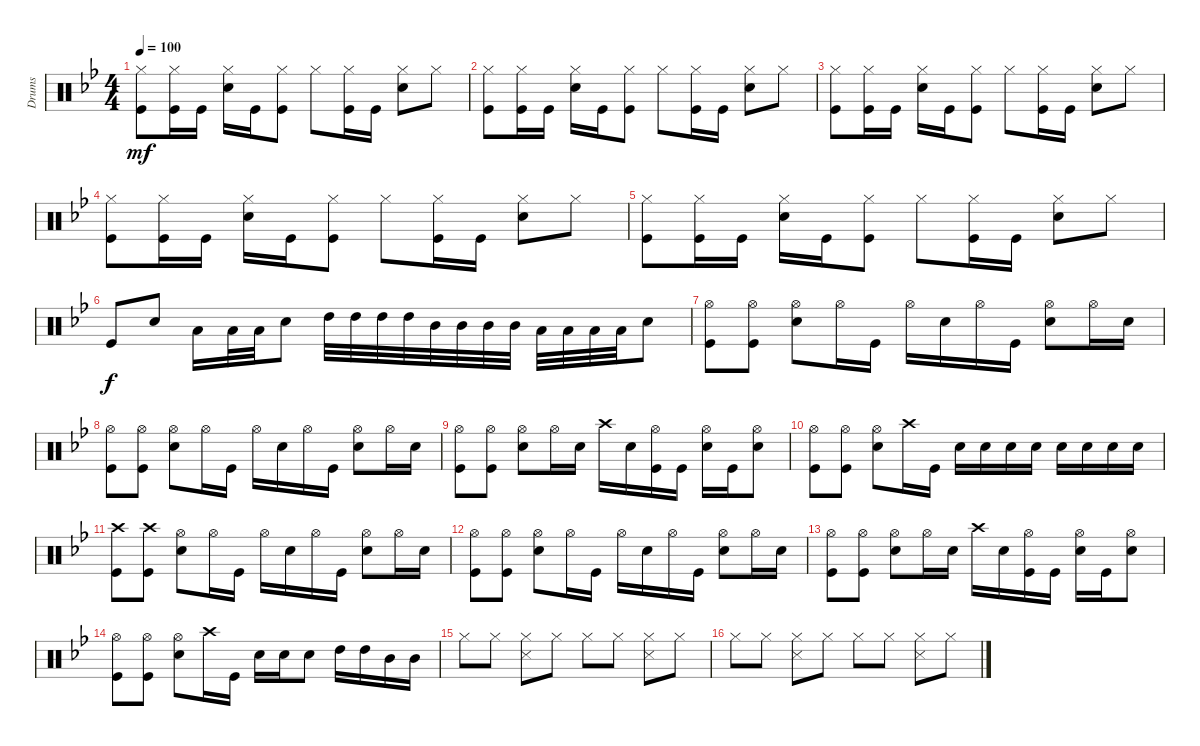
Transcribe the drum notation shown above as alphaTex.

\track ("Drums" "Drums") {instrument percussion}
\staff {score}
\articulation defaults
\ts (4 4)
\tempo 100
\clef neutral
\ks gminor
("Hi-Hat (closed)" "Kick (hit)").8{dy mf} ("Hi-Hat (closed)" "Kick (hit)").16 "Kick (hit)".16 ("Hi-Hat (closed)" "Snare (hit) 2").16 "Kick (hit)".16 ("Hi-Hat (closed)" "Kick (hit)").8 "Hi-Hat (closed)".8 ("Hi-Hat (closed)" "Kick (hit)").16 "Kick (hit)".16 ("Hi-Hat (closed)" "Snare (hit) 2").8 "Hi-Hat (closed)".8 |
("Hi-Hat (closed)" "Kick (hit)").8 ("Hi-Hat (closed)" "Kick (hit)").16 "Kick (hit)".16 ("Hi-Hat (closed)" "Snare (hit) 2").16 "Kick (hit)".16 ("Hi-Hat (closed)" "Kick (hit)").8 "Hi-Hat (closed)".8 ("Hi-Hat (closed)" "Kick (hit)").16 "Kick (hit)".16 ("Hi-Hat (closed)" "Snare (hit) 2").8 "Hi-Hat (closed)".8 |
("Hi-Hat (closed)" "Kick (hit)").8 ("Hi-Hat (closed)" "Kick (hit)").16 "Kick (hit)".16 ("Hi-Hat (closed)" "Snare (hit) 2").16 "Kick (hit)".16 ("Hi-Hat (closed)" "Kick (hit)").8 "Hi-Hat (closed)".8 ("Hi-Hat (closed)" "Kick (hit)").16 "Kick (hit)".16 ("Hi-Hat (closed)" "Snare (hit) 2").8 "Hi-Hat (closed)".8 |
("Hi-Hat (closed)" "Kick (hit)").8 ("Hi-Hat (closed)" "Kick (hit)").16 "Kick (hit)".16 ("Hi-Hat (closed)" "Snare (hit) 2").16 "Kick (hit)".16 ("Hi-Hat (closed)" "Kick (hit)").8 "Hi-Hat (closed)".8 ("Hi-Hat (closed)" "Kick (hit)").16 "Kick (hit)".16 ("Hi-Hat (closed)" "Snare (hit) 2").8 "Hi-Hat (closed)".8 |
("Hi-Hat (closed)" "Kick (hit)").8 ("Hi-Hat (closed)" "Kick (hit)").16 "Kick (hit)".16 ("Hi-Hat (closed)" "Snare (hit) 2").16 "Kick (hit)".16 ("Hi-Hat (closed)" "Kick (hit)").8 "Hi-Hat (closed)".8 ("Hi-Hat (closed)" "Kick (hit)").16 "Kick (hit)".16 ("Hi-Hat (closed)" "Snare (hit) 2").8 "Hi-Hat (closed)".8 |
"Kick (hit)".8{dy f volume 13} "Snare (hit) 2".8 "Low Floor Tom (hit)".16 "Low Floor Tom (hit)".32 "Low Floor Tom (hit)".32 "Snare (hit) 2".8 "High Tom (hit)".32 "High Tom (hit)".32 "High Tom (hit)".32 "High Tom (hit)".32 "Mid Tom (hit)".32 "Mid Tom (hit)".32 "Mid Tom (hit)".32 "Mid Tom (hit)".32 "Low Floor Tom (hit)".32 "Low Floor Tom (hit)".32 "Low Floor Tom (hit)".32 "Low Floor Tom (hit)".32 "Snare (hit) 2".8 |
("Hi-Hat (open)" "Kick (hit)").8 ("Hi-Hat (open)" "Kick (hit)").8 ("Hi-Hat (open)" "Snare (hit) 2").8 "Hi-Hat (open)".16 "Kick (hit)".16 "Hi-Hat (open)".16 "Snare (hit) 2".16 "Hi-Hat (open)".16 "Kick (hit)".16 ("Hi-Hat (open)" "Snare (hit) 2").8 "Hi-Hat (open)".16 "Snare (hit) 2".16 |
("Hi-Hat (open)" "Kick (hit)").8 ("Hi-Hat (open)" "Kick (hit)").8 ("Hi-Hat (open)" "Snare (hit) 2").8 "Hi-Hat (open)".16 "Kick (hit)".16 "Hi-Hat (open)".16 "Snare (hit) 2".16 "Hi-Hat (open)".16 "Kick (hit)".16 ("Hi-Hat (open)" "Snare (hit) 2").8 "Hi-Hat (open)".16 "Snare (hit) 2".16 |
("Hi-Hat (open)" "Kick (hit)").8 ("Hi-Hat (open)" "Kick (hit)").8 ("Hi-Hat (open)" "Snare (hit) 2").8 "Hi-Hat (open)".16 "Snare (hit) 2".16 "Crash high (hit)".16 "Snare (hit) 2".16 ("Hi-Hat (open)" "Kick (hit)").16 "Kick (hit)".16 ("Hi-Hat (open)" "Snare (hit) 2").16 "Kick (hit)".16 ("Hi-Hat (open)" "Snare (hit) 2").8 |
("Hi-Hat (open)" "Kick (hit)").8 ("Hi-Hat (open)" "Kick (hit)").8 ("Hi-Hat (open)" "Snare (hit) 2").8 "Crash high (hit)".16 "Kick (hit)".16 "Snare (hit) 2".16 "Snare (hit) 2".16 "Snare (hit) 2".16 "Snare (hit) 2".16 "Snare (hit) 2".16 "Snare (hit) 2".16 "Snare (hit) 2".16 "Snare (hit) 2".16 |
("Crash high (hit)" "Kick (hit)").8 ("Crash high (hit)" "Kick (hit)").8 ("Hi-Hat (open)" "Snare (hit) 2").8 "Hi-Hat (open)".16 "Kick (hit)".16 "Hi-Hat (open)".16 "Snare (hit) 2".16 "Hi-Hat (open)".16 "Kick (hit)".16 ("Hi-Hat (open)" "Snare (hit) 2").8 "Hi-Hat (open)".16 "Snare (hit) 2".16 |
("Hi-Hat (open)" "Kick (hit)").8 ("Hi-Hat (open)" "Kick (hit)").8 ("Hi-Hat (open)" "Snare (hit) 2").8 "Hi-Hat (open)".16 "Kick (hit)".16 "Hi-Hat (open)".16 "Snare (hit) 2".16 "Hi-Hat (open)".16 "Kick (hit)".16 ("Hi-Hat (open)" "Snare (hit) 2").8 "Hi-Hat (open)".16 "Snare (hit) 2".16 |
("Hi-Hat (open)" "Kick (hit)").8 ("Hi-Hat (open)" "Kick (hit)").8 ("Hi-Hat (open)" "Snare (hit) 2").8 "Hi-Hat (open)".16 "Snare (hit) 2".16 "Crash high (hit)".16 "Snare (hit) 2".16 ("Hi-Hat (open)" "Kick (hit)").16 "Kick (hit)".16 ("Hi-Hat (open)" "Snare (hit) 2").16 "Kick (hit)".16 ("Hi-Hat (open)" "Snare (hit) 2").8 |
("Hi-Hat (open)" "Kick (hit)").8 ("Hi-Hat (open)" "Kick (hit)").8 ("Hi-Hat (open)" "Snare (hit) 2").8 "Crash high (hit)".16 "Kick (hit)".16 "Snare (hit) 2".16 "Snare (hit) 2".16 "Snare (hit) 2".8 "High Tom (hit)".16 "High Tom (hit)".16 "Mid Tom (hit)".16 "Mid Tom (hit)".16 |
\ks bb "Hi-Hat (closed)".8 "Hi-Hat (closed)".8
("Hi-Hat (closed)" "Snare (side stick) 3").8 "Hi-Hat (closed)".8 "Hi-Hat (closed)".8 "Hi-Hat (closed)".8 ("Hi-Hat (closed)" "Snare (side stick) 3").8 "Hi-Hat (closed)".8 |
"Hi-Hat (closed)".8 "Hi-Hat (closed)".8 ("Hi-Hat (closed)" "Snare (side stick) 3").8 "Hi-Hat (closed)".8 "Hi-Hat (closed)".8 "Hi-Hat (closed)".8 ("Hi-Hat (closed)" "Snare (side stick) 3").8 "Hi-Hat (closed)".8
